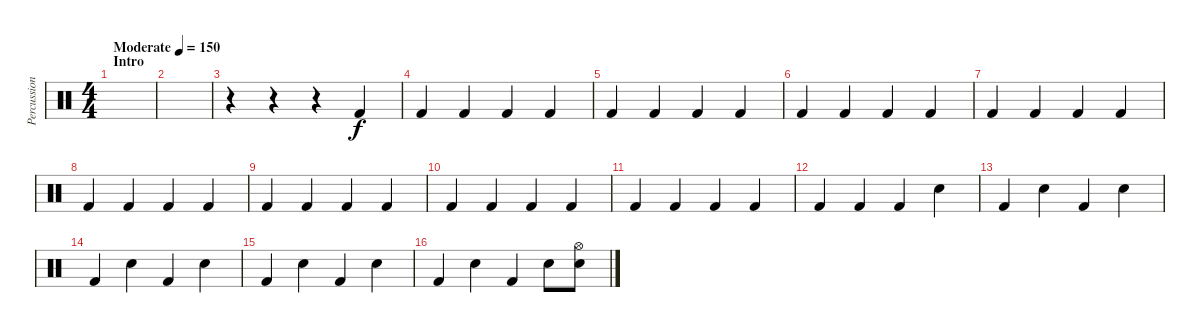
\track ("Percussion" "Percussion") {instrument percussion}
\staff {score}
\articulation defaults
\ts (4 4)
\section ("" "Intro")
\tempo (150 "Moderate")
\clef neutral
\ks c
|
|
r.4 r.4 r.4 "Kick (hit) 2".4 |
"Kick (hit) 2".4 "Kick (hit) 2".4 "Kick (hit) 2".4 "Kick (hit) 2".4 |
"Kick (hit) 2".4 "Kick (hit) 2".4 "Kick (hit) 2".4 "Kick (hit) 2".4 |
"Kick (hit) 2".4 "Kick (hit) 2".4 "Kick (hit) 2".4 "Kick (hit) 2".4 |
"Kick (hit) 2".4 "Kick (hit) 2".4 "Kick (hit) 2".4 "Kick (hit) 2".4 |
"Kick (hit) 2".4 "Kick (hit) 2".4 "Kick (hit) 2".4 "Kick (hit) 2".4 |
"Kick (hit) 2".4 "Kick (hit) 2".4 "Kick (hit) 2".4 "Kick (hit) 2".4 |
"Kick (hit) 2".4 "Kick (hit) 2".4 "Kick (hit) 2".4 "Kick (hit) 2".4 |
"Kick (hit) 2".4 "Kick (hit) 2".4 "Kick (hit) 2".4 "Kick (hit) 2".4 |
"Kick (hit) 2".4 "Kick (hit) 2".4 "Kick (hit) 2".4 "Snare (hit) 2".4 |
"Kick (hit) 2".4 "Snare (hit) 2".4 "Kick (hit) 2".4 "Snare (hit) 2".4 |
"Kick (hit) 2".4 "Snare (hit) 2".4 "Kick (hit) 2".4 "Snare (hit) 2".4 |
"Kick (hit) 2".4 "Snare (hit) 2".4 "Kick (hit) 2".4 "Snare (hit) 2".4 |
"Kick (hit) 2".4 "Snare (hit) 2".4 "Kick (hit) 2".4 "Snare (hit) 2".8 ("Hi-Hat (open)" "Snare (hit)").8
